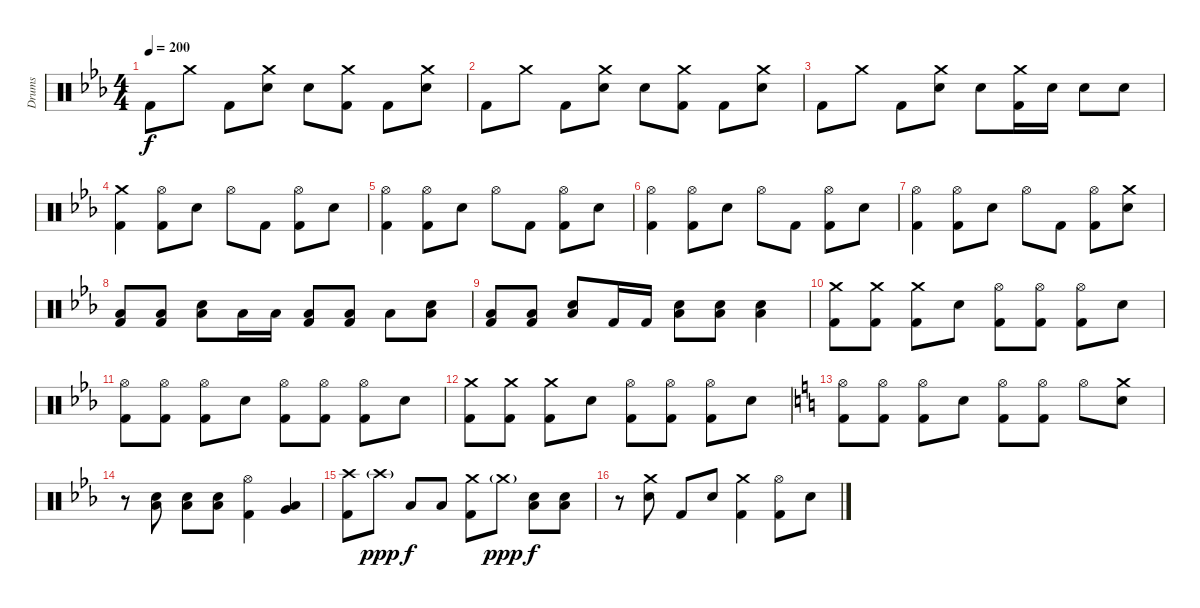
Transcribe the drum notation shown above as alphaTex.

\track ("Drums" "Drums") {instrument percussion}
\staff {score}
\articulation defaults
\ts (4 4)
\tempo 200
\clef neutral
\ks eb "Kick (hit) 2".8{dy f} "Crash medium (hit)".8 "Kick (hit) 2".8
("Electric Snare (hit)" "Crash medium (hit)").8 "Electric Snare (hit)".8 ("Kick (hit) 2" "Crash medium (hit)").8 "Kick (hit) 2".8 ("Electric Snare (hit)" "Crash medium (hit)").8 |
"Kick (hit) 2".8 "Crash medium (hit)".8 "Kick (hit) 2".8 ("Electric Snare (hit)" "Crash medium (hit)").8 "Electric Snare (hit)".8 ("Kick (hit) 2" "Crash medium (hit)").8 "Kick (hit) 2".8 ("Electric Snare (hit)" "Crash medium (hit)").8 |
"Kick (hit) 2".8 "Crash medium (hit)".8 "Kick (hit) 2".8 ("Electric Snare (hit)" "Crash medium (hit)").8 "Electric Snare (hit)".8 ("Kick (hit) 2" "Crash medium (hit)").16 "Electric Snare (hit)".16 "Electric Snare (hit)".8 "Electric Snare (hit)".8 |
("Kick (hit) 2" "Crash medium (hit)").4 ("Hi-Hat (open)" "Kick (hit) 2").8 "Electric Snare (hit)".8 "Hi-Hat (open)".8 "Kick (hit) 2".8 ("Hi-Hat (open)" "Kick (hit) 2").8 "Electric Snare (hit)".8 |
("Hi-Hat (open)" "Kick (hit) 2").4 ("Hi-Hat (open)" "Kick (hit) 2").8 "Electric Snare (hit)".8 "Hi-Hat (open)".8 "Kick (hit) 2".8 ("Hi-Hat (open)" "Kick (hit) 2").8 "Electric Snare (hit)".8 |
("Hi-Hat (open)" "Kick (hit) 2").4 ("Hi-Hat (open)" "Kick (hit) 2").8 "Electric Snare (hit)".8 "Hi-Hat (open)".8 "Kick (hit) 2".8 ("Hi-Hat (open)" "Kick (hit) 2").8 "Electric Snare (hit)".8 |
("Hi-Hat (open)" "Kick (hit) 2").4 ("Hi-Hat (open)" "Kick (hit) 2").8 "Electric Snare (hit)".8 "Hi-Hat (open)".8 "Kick (hit) 2".8 ("Hi-Hat (open)" "Kick (hit) 2").8 ("Electric Snare (hit)" "Crash medium (hit)").8 |
("Kick (hit) 2" "Low Floor Tom (hit)").8 ("Kick (hit) 2" "Low Floor Tom (hit)").8 ("Electric Snare (hit)" "Low Floor Tom (hit)").8 "Low Floor Tom (hit)".16 "Low Tom (hit)".16 ("Kick (hit) 2" "Low Floor Tom (hit)").8 ("Kick (hit) 2" "Low Floor Tom (hit)").8 "Low Floor Tom (hit)".8 ("Electric Snare (hit)" "Low Floor Tom (hit)").8 |
("Kick (hit) 2" "Low Floor Tom (hit)").8 ("Kick (hit) 2" "Low Floor Tom (hit)").8 ("Electric Snare (hit)" "Low Floor Tom (hit)").8 "Kick (hit) 2".16 "Kick (hit) 2".16 ("Electric Snare (hit)" "Low Floor Tom (hit)").8 ("Electric Snare (hit)" "Low Floor Tom (hit)").8 ("Electric Snare (hit)" "Low Floor Tom (hit)").4 |
("Kick (hit) 2" "Crash medium (hit)").8 ("Kick (hit) 2" "Crash medium (hit)").8 ("Kick (hit) 2" "Crash medium (hit)").8 "Electric Snare (hit)".8 ("Kick (hit) 2" "Hi-Hat (open)").8 ("Kick (hit) 2" "Hi-Hat (open)").8 ("Kick (hit) 2" "Hi-Hat (open)").8 "Electric Snare (hit)".8 |
("Kick (hit) 2" "Hi-Hat (open)").8 ("Kick (hit) 2" "Hi-Hat (open)").8 ("Kick (hit) 2" "Hi-Hat (open)").8 "Electric Snare (hit)".8 ("Kick (hit) 2" "Hi-Hat (open)").8 ("Kick (hit) 2" "Hi-Hat (open)").8 ("Kick (hit) 2" "Hi-Hat (open)").8 "Electric Snare (hit)".8 |
("Kick (hit) 2" "Crash medium (hit)").8 ("Kick (hit) 2" "Crash medium (hit)").8 ("Kick (hit) 2" "Crash medium (hit)").8 "Electric Snare (hit)".8 ("Kick (hit) 2" "Hi-Hat (open)").8 ("Kick (hit) 2" "Hi-Hat (open)").8 ("Kick (hit) 2" "Hi-Hat (open)").8 "Electric Snare (hit)".8 |
\ks c
("Kick (hit) 2" "Hi-Hat (open)").8 ("Kick (hit) 2" "Hi-Hat (open)").8 ("Kick (hit) 2" "Hi-Hat (open)").8 "Electric Snare (hit)".8 ("Kick (hit) 2" "Hi-Hat (open)").8 ("Kick (hit) 2" "Hi-Hat (open)").8 "Hi-Hat (open)".8 ("Electric Snare (hit)" "Crash medium (hit)").8 |
\ks eb
r.8 ("Electric Snare (hit)" "Low Floor Tom (hit)").8 ("Electric Snare (hit)" "Low Floor Tom (hit)").8 ("Electric Snare (hit)" "Low Floor Tom (hit)").8 ("Kick (hit) 2" "Hi-Hat (open)").4 ("Very Low Tom (hit)" "Low Floor Tom (hit)").4 |
("Kick (hit) 2" "Crash high (hit)").8 "Crash high (hit)"{g}.8{dy ppp} "Low Floor Tom (hit)".8{dy f} "Low Floor Tom (hit)".8 ("Kick (hit) 2" "Crash medium (hit)").8 "Crash medium (hit)"{g}.8{dy ppp} ("Low Floor Tom (hit)" "Electric Snare (hit)").8{dy f} ("Low Floor Tom (hit)" "Electric Snare (hit)").8 |
r.8 ("Electric Snare (hit)" "Crash medium (hit)").8 "Kick (hit) 2".8 "Electric Snare (hit)".8 ("Kick (hit) 2" "Crash medium (hit)").4 ("Hi-Hat (open)" "Kick (hit) 2").8 "Electric Snare (hit)".8
